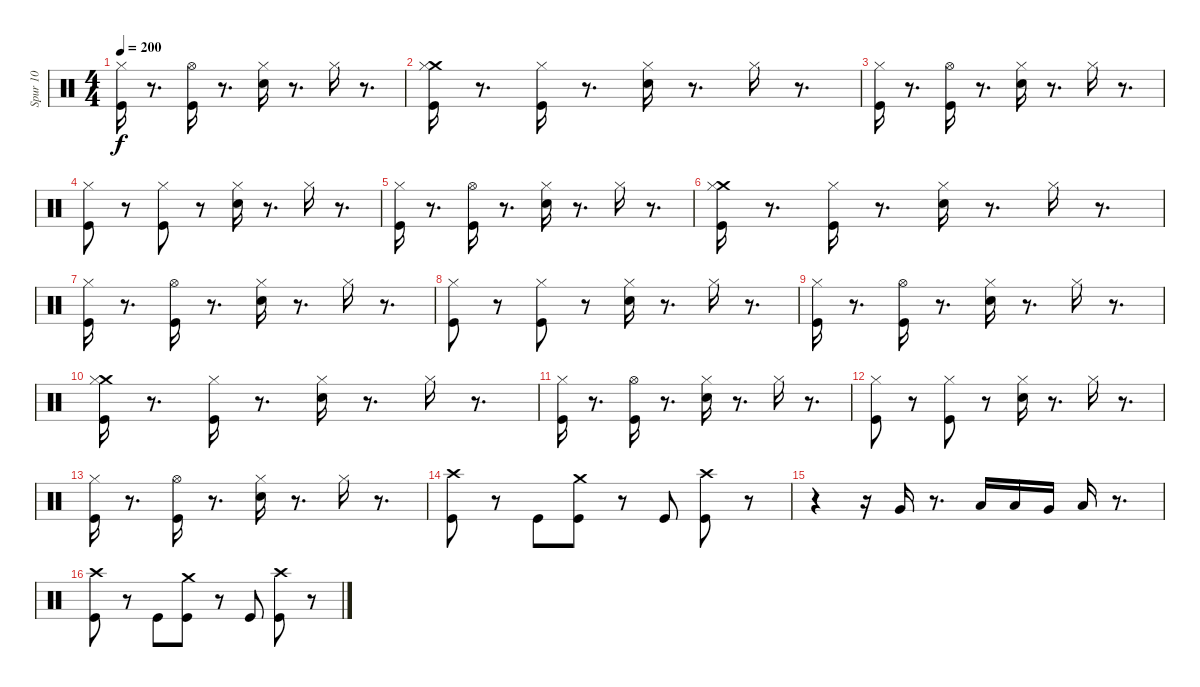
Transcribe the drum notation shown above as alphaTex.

\track ("Spur 10" "Spur 10") {instrument percussion}
\staff {score}
\articulation defaults
\ts (4 4)
\tempo 200
\clef neutral
\ks c
("Kick (hit)" "Hi-Hat (closed)").16{dy f} r.8{d} ("Kick (hit)" "Hi-Hat (open)").16 r.8{d} ("Snare (hit) 2" "Hi-Hat (closed)").16 r.8{d} "Hi-Hat (closed)".16 r.8{d} |
("Kick (hit)" "Crash medium (hit)" "Hi-Hat (closed)").16 r.8{d} ("Kick (hit)" "Hi-Hat (closed)").16 r.8{d} ("Snare (hit) 2" "Hi-Hat (closed)").16 r.8{d} "Hi-Hat (closed)".16 r.8{d} |
("Kick (hit)" "Hi-Hat (closed)").16 r.8{d} ("Kick (hit)" "Hi-Hat (open)").16 r.8{d} ("Snare (hit) 2" "Hi-Hat (closed)").16 r.8{d} "Hi-Hat (closed)".16 r.8{d} |
("Hi-Hat (closed)" "Kick (hit)").8 r.8 ("Kick (hit)" "Hi-Hat (closed)").8 r.8 ("Snare (hit) 2" "Hi-Hat (closed)").16 r.8{d} "Hi-Hat (closed)".16 r.8{d} |
("Kick (hit)" "Hi-Hat (closed)").16 r.8{d} ("Kick (hit)" "Hi-Hat (open)").16 r.8{d} ("Snare (hit) 2" "Hi-Hat (closed)").16 r.8{d} "Hi-Hat (closed)".16 r.8{d} |
("Kick (hit)" "Crash medium (hit)" "Hi-Hat (closed)").16 r.8{d} ("Kick (hit)" "Hi-Hat (closed)").16 r.8{d} ("Snare (hit) 2" "Hi-Hat (closed)").16 r.8{d} "Hi-Hat (closed)".16 r.8{d} |
("Kick (hit)" "Hi-Hat (closed)").16 r.8{d} ("Kick (hit)" "Hi-Hat (open)").16 r.8{d} ("Snare (hit) 2" "Hi-Hat (closed)").16 r.8{d} "Hi-Hat (closed)".16 r.8{d} |
("Hi-Hat (closed)" "Kick (hit)").8 r.8 ("Kick (hit)" "Hi-Hat (closed)").8 r.8 ("Snare (hit) 2" "Hi-Hat (closed)").16 r.8{d} "Hi-Hat (closed)".16 r.8{d} |
("Kick (hit)" "Hi-Hat (closed)").16 r.8{d} ("Kick (hit)" "Hi-Hat (open)").16 r.8{d} ("Snare (hit) 2" "Hi-Hat (closed)").16 r.8{d} "Hi-Hat (closed)".16 r.8{d} |
("Kick (hit)" "Crash medium (hit)" "Hi-Hat (closed)").16 r.8{d} ("Kick (hit)" "Hi-Hat (closed)").16 r.8{d} ("Snare (hit) 2" "Hi-Hat (closed)").16 r.8{d} "Hi-Hat (closed)".16 r.8{d} |
("Kick (hit)" "Hi-Hat (closed)").16 r.8{d} ("Kick (hit)" "Hi-Hat (open)").16 r.8{d} ("Snare (hit) 2" "Hi-Hat (closed)").16 r.8{d} "Hi-Hat (closed)".16 r.8{d} |
("Hi-Hat (closed)" "Kick (hit)").8 r.8 ("Kick (hit)" "Hi-Hat (closed)").8 r.8 ("Snare (hit) 2" "Hi-Hat (closed)").16 r.8{d} "Hi-Hat (closed)".16 r.8{d} |
("Kick (hit)" "Hi-Hat (closed)").16 r.8{d} ("Kick (hit)" "Hi-Hat (open)").16 r.8{d} ("Snare (hit) 2" "Hi-Hat (closed)").16 r.8{d} "Hi-Hat (closed)".16 r.8{d} |
("Kick (hit)" "Crash high (hit)").8 r.8 "Kick (hit)".8 ("Kick (hit)" "Crash medium (hit)").8 r.8 "Kick (hit)".8 ("Kick (hit)" "Crash high (hit)").8 r.8 |
r.4 r.16 "Very Low Tom (hit)".16 r.8{d} "Low Tom (hit)".16 "Low Tom (hit)".16 "Very Low Tom (hit)".16 "Low Floor Tom (hit)".16 r.8{d} |
("Kick (hit)" "Crash high (hit)").8 r.8 "Kick (hit)".8 ("Kick (hit)" "Crash medium (hit)").8 r.8 "Kick (hit)".8 ("Kick (hit)" "Crash high (hit)").8 r.8
